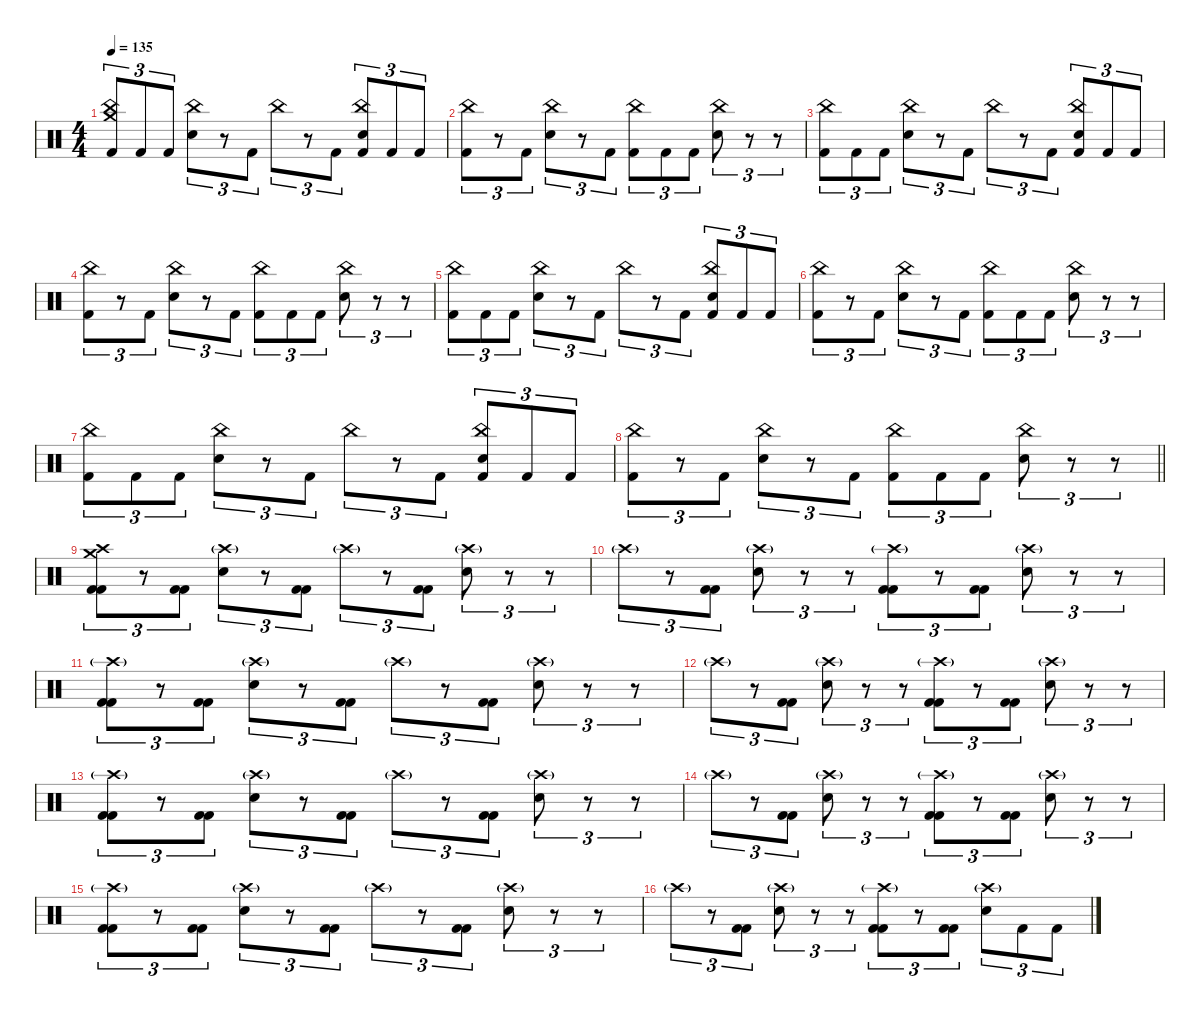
\defaultSystemsLayout 4
\hideDynamics
\bracketExtendMode nobrackets
\singleTrackTrackNamePolicy hidden
\multiTrackTrackNamePolicy hidden
\otherSystemsTrackNameOrientation horizontal
\track ("Gene Hoglan" "drm.") {instrument percussion}
\staff {score}
\articulation defaults
\ts (4 4)
\tempo 135
\clef neutral
\ks c
("Crash medium (hit)" "China (hit)" "Kick (hit) 2").8{tu (3 2) dy f beam Up} "Kick (hit) 2".8{tu (3 2) beam Up} "Kick (hit) 2".8{tu (3 2) beam Up} ("China (hit)" "Snare (hit) 2").8{tu (3 2) dy mf beam Down} r.8{tu (3 2) beam Down} "Kick (hit) 2".8{tu (3 2) dy f beam Down} "China (hit)".8{tu (3 2) dy mf beam Down} r.8{tu (3 2) beam Down} "Kick (hit) 2".8{tu (3 2) dy f beam Down} ("China (hit)" "Snare (hit) 2" "Kick (hit) 2").8{tu (3 2) dy mf beam Up} "Kick (hit) 2".8{tu (3 2) dy f beam Up} "Kick (hit) 2".8{tu (3 2) beam Up} |
("China (hit)" "Kick (hit) 2").8{tu (3 2) dy mf beam Down} r.8{tu (3 2) beam Down} "Kick (hit) 2".8{tu (3 2) dy f beam Down} ("China (hit)" "Snare (hit) 2").8{tu (3 2) dy mf beam Down} r.8{tu (3 2) beam Down} "Kick (hit) 2".8{tu (3 2) dy f beam Down} ("China (hit)" "Kick (hit) 2").8{tu (3 2) dy mf beam Down} "Kick (hit) 2".8{tu (3 2) dy f beam Down} "Kick (hit) 2".8{tu (3 2) beam Down} ("China (hit)" "Snare (hit) 2").8{tu (3 2) dy mf beam Down} r.8{tu (3 2) beam Down} r.8{tu (3 2) beam Down} |
("China (hit)" "Kick (hit) 2").8{tu (3 2) beam Down} "Kick (hit) 2".8{tu (3 2) dy f beam Down} "Kick (hit) 2".8{tu (3 2) beam Down} ("China (hit)" "Snare (hit) 2").8{tu (3 2) dy mf beam Down} r.8{tu (3 2) beam Down} "Kick (hit) 2".8{tu (3 2) dy f beam Down} "China (hit)".8{tu (3 2) dy mf beam Down} r.8{tu (3 2) beam Down} "Kick (hit) 2".8{tu (3 2) dy f beam Down} ("China (hit)" "Snare (hit) 2" "Kick (hit) 2").8{tu (3 2) dy mf beam Up} "Kick (hit) 2".8{tu (3 2) dy f beam Up} "Kick (hit) 2".8{tu (3 2) beam Up} |
("China (hit)" "Kick (hit) 2").8{tu (3 2) dy mf beam Down} r.8{tu (3 2) beam Down} "Kick (hit) 2".8{tu (3 2) dy f beam Down} ("China (hit)" "Snare (hit) 2").8{tu (3 2) dy mf beam Down} r.8{tu (3 2) beam Down} "Kick (hit) 2".8{tu (3 2) dy f beam Down} ("China (hit)" "Kick (hit) 2").8{tu (3 2) dy mf beam Down} "Kick (hit) 2".8{tu (3 2) dy f beam Down} "Kick (hit) 2".8{tu (3 2) beam Down} ("China (hit)" "Snare (hit) 2").8{tu (3 2) dy mf beam Down} r.8{tu (3 2) beam Down} r.8{tu (3 2) beam Down} |
("China (hit)" "Kick (hit) 2").8{tu (3 2) beam Down} "Kick (hit) 2".8{tu (3 2) dy f beam Down} "Kick (hit) 2".8{tu (3 2) beam Down} ("China (hit)" "Snare (hit) 2").8{tu (3 2) dy mf beam Down} r.8{tu (3 2) beam Down} "Kick (hit) 2".8{tu (3 2) dy f beam Down} "China (hit)".8{tu (3 2) dy mf beam Down} r.8{tu (3 2) beam Down} "Kick (hit) 2".8{tu (3 2) dy f beam Down} ("China (hit)" "Snare (hit) 2" "Kick (hit) 2").8{tu (3 2) dy mf beam Up} "Kick (hit) 2".8{tu (3 2) dy f beam Up} "Kick (hit) 2".8{tu (3 2) beam Up} |
("China (hit)" "Kick (hit) 2").8{tu (3 2) dy mf beam Down} r.8{tu (3 2) beam Down} "Kick (hit) 2".8{tu (3 2) dy f beam Down} ("China (hit)" "Snare (hit) 2").8{tu (3 2) dy mf beam Down} r.8{tu (3 2) beam Down} "Kick (hit) 2".8{tu (3 2) dy f beam Down} ("China (hit)" "Kick (hit) 2").8{tu (3 2) dy mf beam Down} "Kick (hit) 2".8{tu (3 2) dy f beam Down} "Kick (hit) 2".8{tu (3 2) beam Down} ("China (hit)" "Snare (hit) 2").8{tu (3 2) dy mf beam Down} r.8{tu (3 2) beam Down} r.8{tu (3 2) beam Down} |
("China (hit)" "Kick (hit) 2").8{tu (3 2) beam Down} "Kick (hit) 2".8{tu (3 2) dy f beam Down} "Kick (hit) 2".8{tu (3 2) beam Down} ("China (hit)" "Snare (hit) 2").8{tu (3 2) dy mf beam Down} r.8{tu (3 2) beam Down} "Kick (hit) 2".8{tu (3 2) dy f beam Down} "China (hit)".8{tu (3 2) dy mf beam Down} r.8{tu (3 2) beam Down} "Kick (hit) 2".8{tu (3 2) dy f beam Down} ("China (hit)" "Snare (hit) 2" "Kick (hit) 2").8{tu (3 2) dy mf beam Up} "Kick (hit) 2".8{tu (3 2) dy f beam Up} "Kick (hit) 2".8{tu (3 2) beam Up} |
\barLineRight lightlight
("China (hit)" "Kick (hit) 2").8{tu (3 2) dy mf beam Down} r.8{tu (3 2) beam Down} "Kick (hit) 2".8{tu (3 2) dy f beam Down} ("China (hit)" "Snare (hit) 2").8{tu (3 2) dy mf beam Down} r.8{tu (3 2) beam Down} "Kick (hit) 2".8{tu (3 2) dy f beam Down} ("China (hit)" "Kick (hit) 2").8{tu (3 2) dy mf beam Down} "Kick (hit) 2".8{tu (3 2) dy f beam Down} "Kick (hit) 2".8{tu (3 2) beam Down} ("China (hit)" "Snare (hit) 2").8{tu (3 2) dy mf beam Down} r.8{tu (3 2) beam Down} r.8{tu (3 2) beam Down} |
("Crash high (hit)" "Crash medium (hit)" "Kick (hit) 2" "Kick (hit) 2").8{tu (3 2) dy f beam Down} r.8{tu (3 2) beam Down} ("Kick (hit) 2" "Kick (hit) 2").8{tu (3 2) beam Down} ("Crash high (hit)"{g} "Snare (hit) 2").8{tu (3 2) beam Down} r.8{tu (3 2) beam Down} ("Kick (hit) 2" "Kick (hit) 2").8{tu (3 2) beam Down} "Crash high (hit)"{g}.8{tu (3 2) dy mf beam Down} r.8{tu (3 2) beam Down} ("Kick (hit) 2" "Kick (hit) 2").8{tu (3 2) dy f beam Down} ("Crash high (hit)"{g} "Snare (hit) 2").8{tu (3 2) beam Down} r.8{tu (3 2) beam Down} r.8{tu (3 2) beam Down} |
"Crash high (hit)"{g}.8{tu (3 2) dy mf beam Down} r.8{tu (3 2) beam Down} ("Kick (hit) 2" "Kick (hit) 2").8{tu (3 2) dy f beam Down} ("Crash high (hit)"{g} "Snare (hit) 2").8{tu (3 2) beam Down} r.8{tu (3 2) beam Down} r.8{tu (3 2) beam Down} ("Crash high (hit)"{g} "Kick (hit) 2" "Kick (hit) 2").8{tu (3 2) beam Down} r.8{tu (3 2) beam Down} ("Kick (hit) 2" "Kick (hit) 2").8{tu (3 2) beam Down} ("Crash high (hit)"{g} "Snare (hit) 2").8{tu (3 2) beam Down} r.8{tu (3 2) beam Down} r.8{tu (3 2) beam Down} |
("Crash high (hit)"{g} "Kick (hit) 2" "Kick (hit) 2").8{tu (3 2) beam Down} r.8{tu (3 2) beam Down} ("Kick (hit) 2" "Kick (hit) 2").8{tu (3 2) beam Down} ("Crash high (hit)"{g} "Snare (hit) 2").8{tu (3 2) beam Down} r.8{tu (3 2) beam Down} ("Kick (hit) 2" "Kick (hit) 2").8{tu (3 2) beam Down} "Crash high (hit)"{g}.8{tu (3 2) dy mf beam Down} r.8{tu (3 2) beam Down} ("Kick (hit) 2" "Kick (hit) 2").8{tu (3 2) dy f beam Down} ("Crash high (hit)"{g} "Snare (hit) 2").8{tu (3 2) beam Down} r.8{tu (3 2) beam Down} r.8{tu (3 2) beam Down} |
"Crash high (hit)"{g}.8{tu (3 2) dy mf beam Down} r.8{tu (3 2) beam Down} ("Kick (hit) 2" "Kick (hit) 2").8{tu (3 2) dy f beam Down} ("Crash high (hit)"{g} "Snare (hit) 2").8{tu (3 2) beam Down} r.8{tu (3 2) beam Down} r.8{tu (3 2) beam Down} ("Crash high (hit)"{g} "Kick (hit) 2" "Kick (hit) 2").8{tu (3 2) beam Down} r.8{tu (3 2) beam Down} ("Kick (hit) 2" "Kick (hit) 2").8{tu (3 2) beam Down} ("Crash high (hit)"{g} "Snare (hit) 2").8{tu (3 2) beam Down} r.8{tu (3 2) beam Down} r.8{tu (3 2) beam Down} |
("Crash high (hit)"{g} "Kick (hit) 2" "Kick (hit) 2").8{tu (3 2) beam Down} r.8{tu (3 2) beam Down} ("Kick (hit) 2" "Kick (hit) 2").8{tu (3 2) beam Down} ("Crash high (hit)"{g} "Snare (hit) 2").8{tu (3 2) beam Down} r.8{tu (3 2) beam Down} ("Kick (hit) 2" "Kick (hit) 2").8{tu (3 2) beam Down} "Crash high (hit)"{g}.8{tu (3 2) dy mf beam Down} r.8{tu (3 2) beam Down} ("Kick (hit) 2" "Kick (hit) 2").8{tu (3 2) dy f beam Down} ("Crash high (hit)"{g} "Snare (hit) 2").8{tu (3 2) beam Down} r.8{tu (3 2) beam Down} r.8{tu (3 2) beam Down} |
"Crash high (hit)"{g}.8{tu (3 2) dy mf beam Down} r.8{tu (3 2) beam Down} ("Kick (hit) 2" "Kick (hit) 2").8{tu (3 2) dy f beam Down} ("Crash high (hit)"{g} "Snare (hit) 2").8{tu (3 2) beam Down} r.8{tu (3 2) beam Down} r.8{tu (3 2) beam Down} ("Crash high (hit)"{g} "Kick (hit) 2" "Kick (hit) 2").8{tu (3 2) beam Down} r.8{tu (3 2) beam Down} ("Kick (hit) 2" "Kick (hit) 2").8{tu (3 2) beam Down} ("Crash high (hit)"{g} "Snare (hit) 2").8{tu (3 2) beam Down} r.8{tu (3 2) beam Down} r.8{tu (3 2) beam Down} |
("Crash high (hit)"{g} "Kick (hit) 2" "Kick (hit) 2").8{tu (3 2) beam Down} r.8{tu (3 2) beam Down} ("Kick (hit) 2" "Kick (hit) 2").8{tu (3 2) beam Down} ("Crash high (hit)"{g} "Snare (hit) 2").8{tu (3 2) beam Down} r.8{tu (3 2) beam Down} ("Kick (hit) 2" "Kick (hit) 2").8{tu (3 2) beam Down} "Crash high (hit)"{g}.8{tu (3 2) dy mf beam Down} r.8{tu (3 2) beam Down} ("Kick (hit) 2" "Kick (hit) 2").8{tu (3 2) dy f beam Down} ("Crash high (hit)"{g} "Snare (hit) 2").8{tu (3 2) beam Down} r.8{tu (3 2) beam Down} r.8{tu (3 2) beam Down} |
"Crash high (hit)"{g}.8{tu (3 2) dy mf beam Down} r.8{tu (3 2) beam Down} ("Kick (hit) 2" "Kick (hit) 2").8{tu (3 2) dy f beam Down} ("Crash high (hit)"{g} "Snare (hit) 2").8{tu (3 2) beam Down} r.8{tu (3 2) beam Down} r.8{tu (3 2) beam Down} ("Crash high (hit)"{g} "Kick (hit) 2" "Kick (hit) 2").8{tu (3 2) beam Down} r.8{tu (3 2) beam Down} ("Kick (hit) 2" "Kick (hit) 2").8{tu (3 2) beam Down} ("Crash high (hit)"{g} "Snare (hit) 2").8{tu (3 2) beam Down} "Kick (hit) 2".8{tu (3 2) beam Down} "Kick (hit) 2".8{tu (3 2) beam Down}
